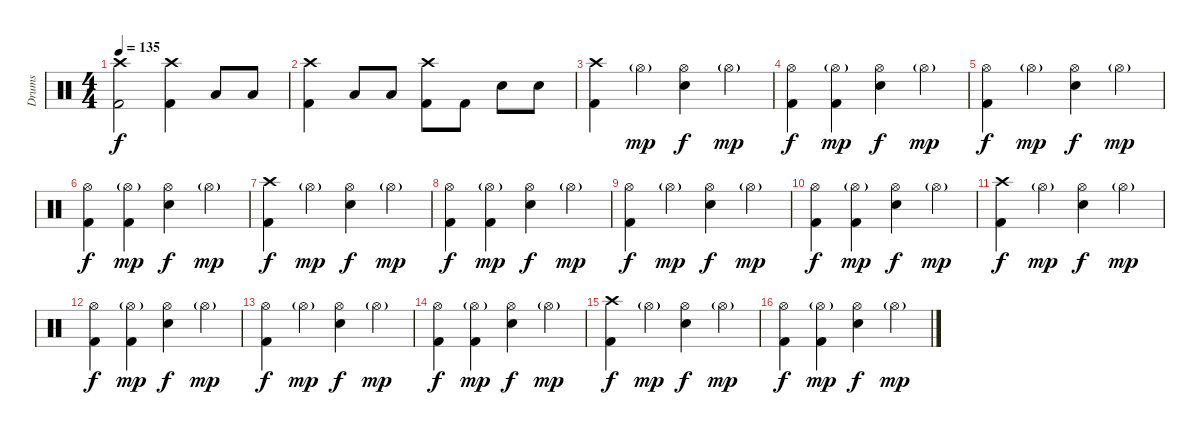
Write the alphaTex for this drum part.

\track ("Drums" "Drums") {instrument percussion}
\staff {score}
\articulation defaults
\ts (4 4)
\tempo 135
\clef neutral
\ks c
("Crash high (hit)" "Kick (hit) 2").2{dy f} ("Crash high (hit)" "Kick (hit) 2").4 "Low Tom (hit)".8 "Low Tom (hit)".8 |
("Crash high (hit)" "Kick (hit) 2").4 "Low Tom (hit)".8 "Low Tom (hit)".8 ("Crash high (hit)" "Kick (hit) 2").8 "Kick (hit) 2".8 "Snare (hit) 2".8 "Snare (hit) 2".8 |
("Crash high (hit)" "Kick (hit) 2").4 "Hi-Hat (open)"{g}.4{dy mp} ("Hi-Hat (open)" "Snare (hit) 2").4{dy f} "Hi-Hat (open)"{g}.4{dy mp} |
("Hi-Hat (open)" "Kick (hit) 2").4{dy f} ("Hi-Hat (open)"{g} "Kick (hit) 2").4{dy mp} ("Hi-Hat (open)" "Snare (hit) 2").4{dy f} "Hi-Hat (open)"{g}.4{dy mp} |
("Hi-Hat (open)" "Kick (hit) 2").4{dy f} "Hi-Hat (open)"{g}.4{dy mp} ("Hi-Hat (open)" "Snare (hit) 2").4{dy f} "Hi-Hat (open)"{g}.4{dy mp} |
("Hi-Hat (open)" "Kick (hit) 2").4{dy f} ("Hi-Hat (open)"{g} "Kick (hit) 2").4{dy mp} ("Hi-Hat (open)" "Snare (hit) 2").4{dy f} "Hi-Hat (open)"{g}.4{dy mp} |
("Crash high (hit)" "Kick (hit) 2").4{dy f} "Hi-Hat (open)"{g}.4{dy mp} ("Hi-Hat (open)" "Snare (hit) 2").4{dy f} "Hi-Hat (open)"{g}.4{dy mp} |
("Hi-Hat (open)" "Kick (hit) 2").4{dy f} ("Hi-Hat (open)"{g} "Kick (hit) 2").4{dy mp} ("Hi-Hat (open)" "Snare (hit) 2").4{dy f} "Hi-Hat (open)"{g}.4{dy mp} |
("Hi-Hat (open)" "Kick (hit) 2").4{dy f} "Hi-Hat (open)"{g}.4{dy mp} ("Hi-Hat (open)" "Snare (hit) 2").4{dy f} "Hi-Hat (open)"{g}.4{dy mp} |
("Hi-Hat (open)" "Kick (hit) 2").4{dy f} ("Hi-Hat (open)"{g} "Kick (hit) 2").4{dy mp} ("Hi-Hat (open)" "Snare (hit) 2").4{dy f} "Hi-Hat (open)"{g}.4{dy mp} |
("Crash high (hit)" "Kick (hit) 2").4{dy f} "Hi-Hat (open)"{g}.4{dy mp} ("Hi-Hat (open)" "Snare (hit) 2").4{dy f} "Hi-Hat (open)"{g}.4{dy mp} |
("Hi-Hat (open)" "Kick (hit) 2").4{dy f} ("Hi-Hat (open)"{g} "Kick (hit) 2").4{dy mp} ("Hi-Hat (open)" "Snare (hit) 2").4{dy f} "Hi-Hat (open)"{g}.4{dy mp} |
("Hi-Hat (open)" "Kick (hit) 2").4{dy f} "Hi-Hat (open)"{g}.4{dy mp} ("Hi-Hat (open)" "Snare (hit) 2").4{dy f} "Hi-Hat (open)"{g}.4{dy mp} |
("Hi-Hat (open)" "Kick (hit) 2").4{dy f} ("Hi-Hat (open)"{g} "Kick (hit) 2").4{dy mp} ("Hi-Hat (open)" "Snare (hit) 2").4{dy f} "Hi-Hat (open)"{g}.4{dy mp} |
("Crash high (hit)" "Kick (hit) 2").4{dy f} "Hi-Hat (open)"{g}.4{dy mp} ("Hi-Hat (open)" "Snare (hit) 2").4{dy f} "Hi-Hat (open)"{g}.4{dy mp} |
("Hi-Hat (open)" "Kick (hit) 2").4{dy f} ("Hi-Hat (open)"{g} "Kick (hit) 2").4{dy mp} ("Hi-Hat (open)" "Snare (hit) 2").4{dy f} "Hi-Hat (open)"{g}.4{dy mp}
